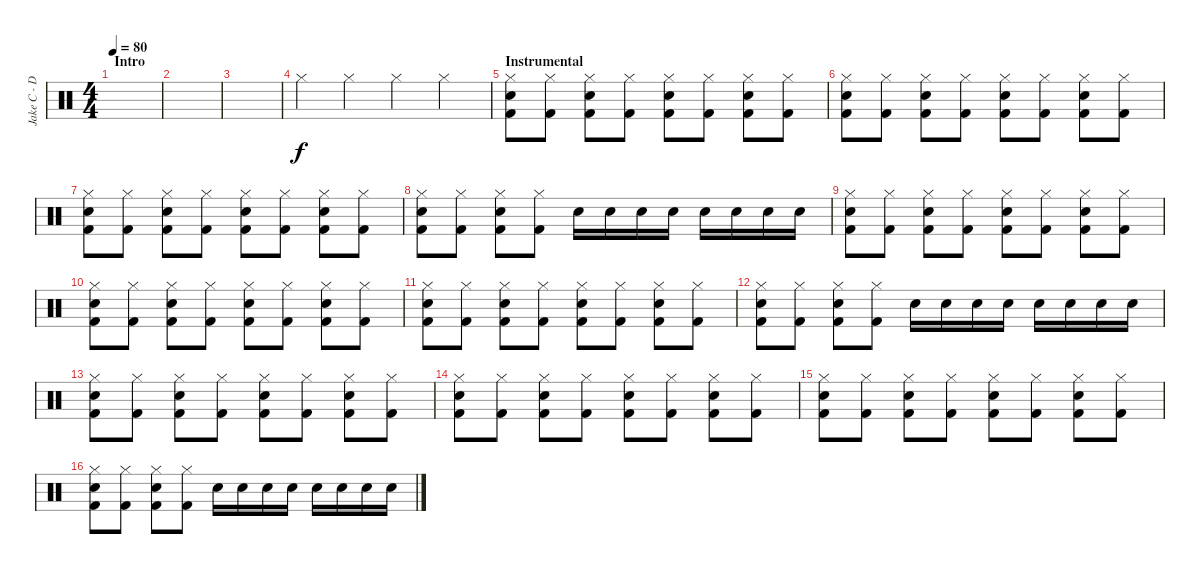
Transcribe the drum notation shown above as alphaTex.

\track ("Jake C - Drums" "Jake C - D") {instrument percussion}
\staff {score}
\articulation defaults
\ts (4 4)
\section ("" "Intro")
\tempo 80
\clef neutral
\ks c
|
|
|
"Hi-Hat (closed)".4 "Hi-Hat (closed)".4 "Hi-Hat (closed)".4 "Hi-Hat (closed)".4 |
\section ("" "Instrumental")
("Hi-Hat (closed)" "Electric Snare (hit)" "Kick (hit) 2").8 ("Hi-Hat (closed)" "Kick (hit) 2").8 ("Hi-Hat (closed)" "Electric Snare (hit)" "Kick (hit) 2").8 ("Hi-Hat (closed)" "Kick (hit) 2").8 ("Hi-Hat (closed)" "Electric Snare (hit)" "Kick (hit) 2").8 ("Hi-Hat (closed)" "Kick (hit) 2").8 ("Hi-Hat (closed)" "Electric Snare (hit)" "Kick (hit) 2").8 ("Hi-Hat (closed)" "Kick (hit) 2").8 |
("Hi-Hat (closed)" "Electric Snare (hit)" "Kick (hit) 2").8 ("Hi-Hat (closed)" "Kick (hit) 2").8 ("Hi-Hat (closed)" "Electric Snare (hit)" "Kick (hit) 2").8 ("Hi-Hat (closed)" "Kick (hit) 2").8 ("Hi-Hat (closed)" "Electric Snare (hit)" "Kick (hit) 2").8 ("Hi-Hat (closed)" "Kick (hit) 2").8 ("Hi-Hat (closed)" "Electric Snare (hit)" "Kick (hit) 2").8 ("Hi-Hat (closed)" "Kick (hit) 2").8 |
("Hi-Hat (closed)" "Electric Snare (hit)" "Kick (hit) 2").8 ("Hi-Hat (closed)" "Kick (hit) 2").8 ("Hi-Hat (closed)" "Electric Snare (hit)" "Kick (hit) 2").8 ("Hi-Hat (closed)" "Kick (hit) 2").8 ("Hi-Hat (closed)" "Electric Snare (hit)" "Kick (hit) 2").8 ("Hi-Hat (closed)" "Kick (hit) 2").8 ("Hi-Hat (closed)" "Electric Snare (hit)" "Kick (hit) 2").8 ("Hi-Hat (closed)" "Kick (hit) 2").8 |
("Hi-Hat (closed)" "Electric Snare (hit)" "Kick (hit) 2").8 ("Hi-Hat (closed)" "Kick (hit) 2").8 ("Hi-Hat (closed)" "Electric Snare (hit)" "Kick (hit) 2").8 ("Hi-Hat (closed)" "Kick (hit) 2").8 "Electric Snare (hit)".16 "Electric Snare (hit)".16 "Electric Snare (hit)".16 "Electric Snare (hit)".16 "Electric Snare (hit)".16 "Electric Snare (hit)".16 "Electric Snare (hit)".16 "Electric Snare (hit)".16 |
("Hi-Hat (closed)" "Electric Snare (hit)" "Kick (hit) 2").8 ("Hi-Hat (closed)" "Kick (hit) 2").8 ("Hi-Hat (closed)" "Electric Snare (hit)" "Kick (hit) 2").8 ("Hi-Hat (closed)" "Kick (hit) 2").8 ("Hi-Hat (closed)" "Electric Snare (hit)" "Kick (hit) 2").8 ("Hi-Hat (closed)" "Kick (hit) 2").8 ("Hi-Hat (closed)" "Electric Snare (hit)" "Kick (hit) 2").8 ("Hi-Hat (closed)" "Kick (hit) 2").8 |
("Hi-Hat (closed)" "Electric Snare (hit)" "Kick (hit) 2").8 ("Hi-Hat (closed)" "Kick (hit) 2").8 ("Hi-Hat (closed)" "Electric Snare (hit)" "Kick (hit) 2").8 ("Hi-Hat (closed)" "Kick (hit) 2").8 ("Hi-Hat (closed)" "Electric Snare (hit)" "Kick (hit) 2").8 ("Hi-Hat (closed)" "Kick (hit) 2").8 ("Hi-Hat (closed)" "Electric Snare (hit)" "Kick (hit) 2").8 ("Hi-Hat (closed)" "Kick (hit) 2").8 |
("Hi-Hat (closed)" "Electric Snare (hit)" "Kick (hit) 2").8 ("Hi-Hat (closed)" "Kick (hit) 2").8 ("Hi-Hat (closed)" "Electric Snare (hit)" "Kick (hit) 2").8 ("Hi-Hat (closed)" "Kick (hit) 2").8 ("Hi-Hat (closed)" "Electric Snare (hit)" "Kick (hit) 2").8 ("Hi-Hat (closed)" "Kick (hit) 2").8 ("Hi-Hat (closed)" "Electric Snare (hit)" "Kick (hit) 2").8 ("Hi-Hat (closed)" "Kick (hit) 2").8 |
("Hi-Hat (closed)" "Electric Snare (hit)" "Kick (hit) 2").8 ("Hi-Hat (closed)" "Kick (hit) 2").8 ("Hi-Hat (closed)" "Electric Snare (hit)" "Kick (hit) 2").8 ("Hi-Hat (closed)" "Kick (hit) 2").8 "Electric Snare (hit)".16 "Electric Snare (hit)".16 "Electric Snare (hit)".16 "Electric Snare (hit)".16 "Electric Snare (hit)".16 "Electric Snare (hit)".16 "Electric Snare (hit)".16 "Electric Snare (hit)".16 |
("Hi-Hat (closed)" "Electric Snare (hit)" "Kick (hit) 2").8 ("Hi-Hat (closed)" "Kick (hit) 2").8 ("Hi-Hat (closed)" "Electric Snare (hit)" "Kick (hit) 2").8 ("Hi-Hat (closed)" "Kick (hit) 2").8 ("Hi-Hat (closed)" "Electric Snare (hit)" "Kick (hit) 2").8 ("Hi-Hat (closed)" "Kick (hit) 2").8 ("Hi-Hat (closed)" "Electric Snare (hit)" "Kick (hit) 2").8 ("Hi-Hat (closed)" "Kick (hit) 2").8 |
("Hi-Hat (closed)" "Electric Snare (hit)" "Kick (hit) 2").8 ("Hi-Hat (closed)" "Kick (hit) 2").8 ("Hi-Hat (closed)" "Electric Snare (hit)" "Kick (hit) 2").8 ("Hi-Hat (closed)" "Kick (hit) 2").8 ("Hi-Hat (closed)" "Electric Snare (hit)" "Kick (hit) 2").8 ("Hi-Hat (closed)" "Kick (hit) 2").8 ("Hi-Hat (closed)" "Electric Snare (hit)" "Kick (hit) 2").8 ("Hi-Hat (closed)" "Kick (hit) 2").8 |
("Hi-Hat (closed)" "Electric Snare (hit)" "Kick (hit) 2").8 ("Hi-Hat (closed)" "Kick (hit) 2").8 ("Hi-Hat (closed)" "Electric Snare (hit)" "Kick (hit) 2").8 ("Hi-Hat (closed)" "Kick (hit) 2").8 ("Hi-Hat (closed)" "Electric Snare (hit)" "Kick (hit) 2").8 ("Hi-Hat (closed)" "Kick (hit) 2").8 ("Hi-Hat (closed)" "Electric Snare (hit)" "Kick (hit) 2").8 ("Hi-Hat (closed)" "Kick (hit) 2").8 |
("Hi-Hat (closed)" "Electric Snare (hit)" "Kick (hit) 2").8 ("Hi-Hat (closed)" "Kick (hit) 2").8 ("Hi-Hat (closed)" "Electric Snare (hit)" "Kick (hit) 2").8 ("Hi-Hat (closed)" "Kick (hit) 2").8 "Electric Snare (hit)".16 "Electric Snare (hit)".16 "Electric Snare (hit)".16 "Electric Snare (hit)".16 "Electric Snare (hit)".16 "Electric Snare (hit)".16 "Electric Snare (hit)".16 "Electric Snare (hit)".16
